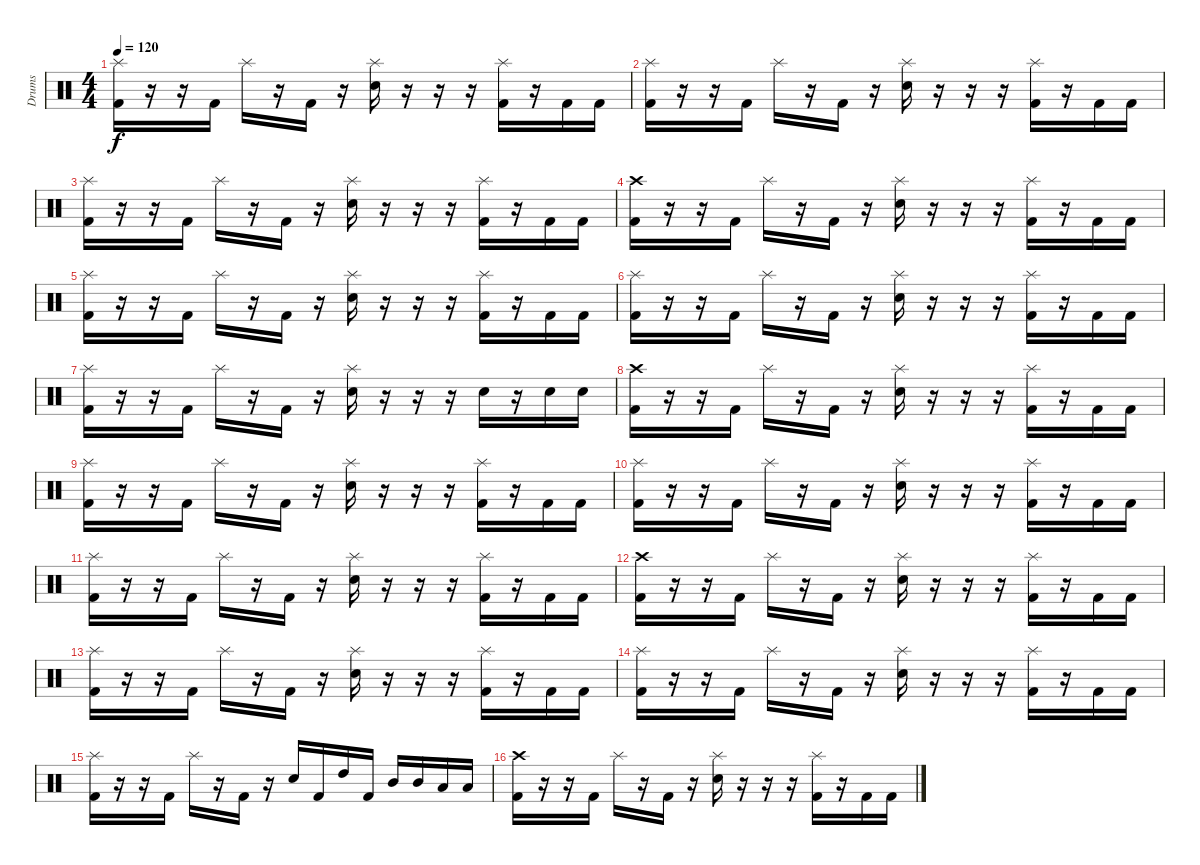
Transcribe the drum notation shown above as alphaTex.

\track ("Drums" "Drums") {instrument percussion}
\staff {score}
\articulation defaults
\ts (4 4)
\tempo 120
\clef neutral
\ks c
("Splash (hit)" "Kick (hit) 2").16{dy f} r.16 r.16 "Kick (hit) 2".16 "Splash (hit)".16 r.16 "Kick (hit) 2".16 r.16 ("Splash (hit)" "Snare (hit) 2").16 r.16 r.16 r.16 ("Splash (hit)" "Kick (hit) 2").16 r.16 "Kick (hit) 2".16 "Kick (hit) 2".16 |
("Splash (hit)" "Kick (hit) 2").16 r.16 r.16 "Kick (hit) 2".16 "Splash (hit)".16 r.16 "Kick (hit) 2".16 r.16 ("Splash (hit)" "Snare (hit) 2").16 r.16 r.16 r.16 ("Splash (hit)" "Kick (hit) 2").16 r.16 "Kick (hit) 2".16 "Kick (hit) 2".16 |
("Splash (hit)" "Kick (hit) 2").16 r.16 r.16 "Kick (hit) 2".16 "Splash (hit)".16 r.16 "Kick (hit) 2".16 r.16 ("Splash (hit)" "Snare (hit) 2").16 r.16 r.16 r.16 ("Splash (hit)" "Kick (hit) 2").16 r.16 "Kick (hit) 2".16 "Kick (hit) 2".16 |
("Crash high (hit)" "Kick (hit) 2").16 r.16 r.16 "Kick (hit) 2".16 "Splash (hit)".16 r.16 "Kick (hit) 2".16 r.16 ("Splash (hit)" "Snare (hit) 2").16 r.16 r.16 r.16 ("Splash (hit)" "Kick (hit) 2").16 r.16 "Kick (hit) 2".16 "Kick (hit) 2".16 |
("Splash (hit)" "Kick (hit) 2").16 r.16 r.16 "Kick (hit) 2".16 "Splash (hit)".16 r.16 "Kick (hit) 2".16 r.16 ("Splash (hit)" "Snare (hit) 2").16 r.16 r.16 r.16 ("Splash (hit)" "Kick (hit) 2").16 r.16 "Kick (hit) 2".16 "Kick (hit) 2".16 |
("Splash (hit)" "Kick (hit) 2").16 r.16 r.16 "Kick (hit) 2".16 "Splash (hit)".16 r.16 "Kick (hit) 2".16 r.16 ("Splash (hit)" "Snare (hit) 2").16 r.16 r.16 r.16 ("Splash (hit)" "Kick (hit) 2").16 r.16 "Kick (hit) 2".16 "Kick (hit) 2".16 |
("Splash (hit)" "Kick (hit) 2").16 r.16 r.16 "Kick (hit) 2".16 "Splash (hit)".16 r.16 "Kick (hit) 2".16 r.16 ("Splash (hit)" "Snare (hit) 2").16 r.16 r.16 r.16 "Snare (hit) 2".16 r.16 "Snare (hit) 2".16 "Snare (hit) 2".16 |
("Crash high (hit)" "Kick (hit) 2").16 r.16 r.16 "Kick (hit) 2".16 "Splash (hit)".16 r.16 "Kick (hit) 2".16 r.16 ("Splash (hit)" "Snare (hit) 2").16 r.16 r.16 r.16 ("Splash (hit)" "Kick (hit) 2").16 r.16 "Kick (hit) 2".16 "Kick (hit) 2".16 |
("Splash (hit)" "Kick (hit) 2").16 r.16 r.16 "Kick (hit) 2".16 "Splash (hit)".16 r.16 "Kick (hit) 2".16 r.16 ("Splash (hit)" "Snare (hit) 2").16 r.16 r.16 r.16 ("Splash (hit)" "Kick (hit) 2").16 r.16 "Kick (hit) 2".16 "Kick (hit) 2".16 |
("Splash (hit)" "Kick (hit) 2").16 r.16 r.16 "Kick (hit) 2".16 "Splash (hit)".16 r.16 "Kick (hit) 2".16 r.16 ("Splash (hit)" "Snare (hit) 2").16 r.16 r.16 r.16 ("Splash (hit)" "Kick (hit) 2").16 r.16 "Kick (hit) 2".16 "Kick (hit) 2".16 |
("Splash (hit)" "Kick (hit) 2").16 r.16 r.16 "Kick (hit) 2".16 "Splash (hit)".16 r.16 "Kick (hit) 2".16 r.16 ("Splash (hit)" "Snare (hit) 2").16 r.16 r.16 r.16 ("Splash (hit)" "Kick (hit) 2").16 r.16 "Kick (hit) 2".16 "Kick (hit) 2".16 |
("Crash high (hit)" "Kick (hit) 2").16 r.16 r.16 "Kick (hit) 2".16 "Splash (hit)".16 r.16 "Kick (hit) 2".16 r.16 ("Splash (hit)" "Snare (hit) 2").16 r.16 r.16 r.16 ("Splash (hit)" "Kick (hit) 2").16 r.16 "Kick (hit) 2".16 "Kick (hit) 2".16 |
("Splash (hit)" "Kick (hit) 2").16 r.16 r.16 "Kick (hit) 2".16 "Splash (hit)".16 r.16 "Kick (hit) 2".16 r.16 ("Splash (hit)" "Snare (hit) 2").16 r.16 r.16 r.16 ("Splash (hit)" "Kick (hit) 2").16 r.16 "Kick (hit) 2".16 "Kick (hit) 2".16 |
("Splash (hit)" "Kick (hit) 2").16 r.16 r.16 "Kick (hit) 2".16 "Splash (hit)".16 r.16 "Kick (hit) 2".16 r.16 ("Splash (hit)" "Snare (hit) 2").16 r.16 r.16 r.16 ("Splash (hit)" "Kick (hit) 2").16 r.16 "Kick (hit) 2".16 "Kick (hit) 2".16 |
("Splash (hit)" "Kick (hit) 2").16 r.16 r.16 "Kick (hit) 2".16 "Splash (hit)".16 r.16 "Kick (hit) 2".16 r.16 "Snare (hit) 2".16 "Kick (hit) 2".16 "High Tom (hit)".16 "Kick (hit) 2".16 "Mid Tom (hit)".16 "Mid Tom (hit)".16 "Low Tom (hit)".16 "Low Tom (hit)".16 |
("Crash high (hit)" "Kick (hit) 2").16 r.16 r.16 "Kick (hit) 2".16 "Splash (hit)".16 r.16 "Kick (hit) 2".16 r.16 ("Splash (hit)" "Snare (hit) 2").16 r.16 r.16 r.16 ("Splash (hit)" "Kick (hit) 2").16 r.16 "Kick (hit) 2".16 "Kick (hit) 2".16
